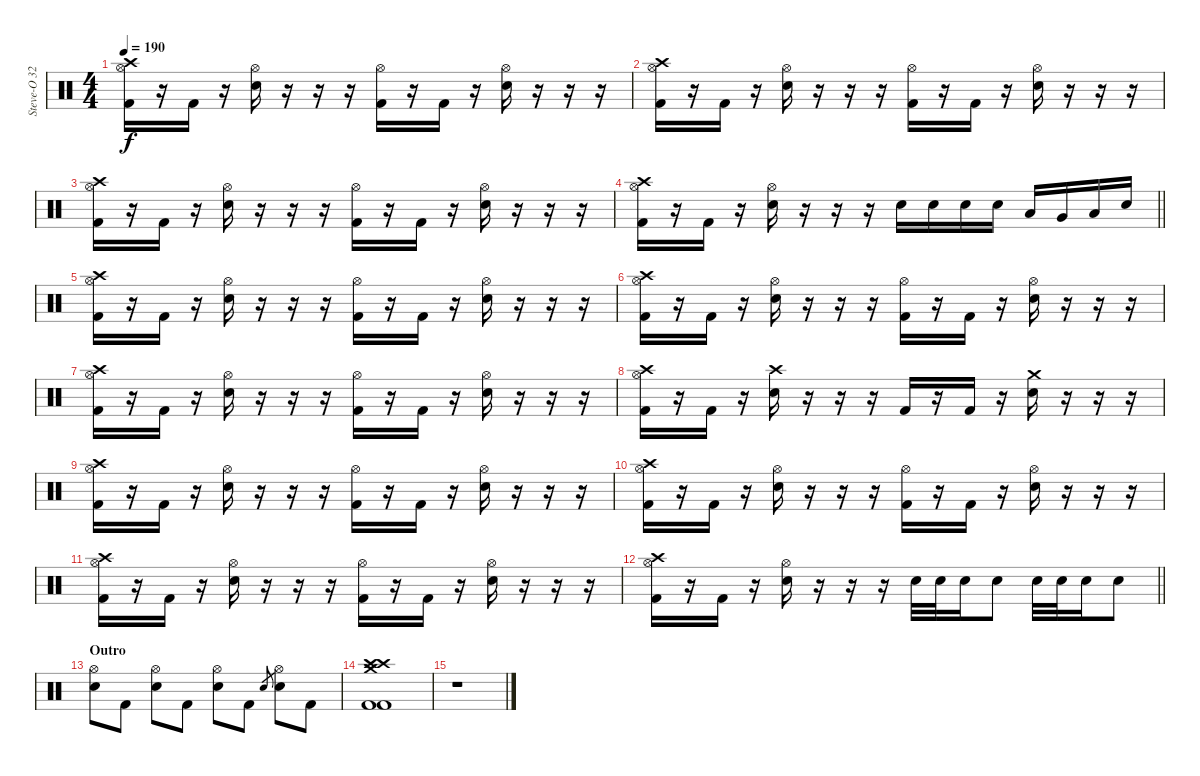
\track ("Steve-O 32 ( Drums )" "Steve-O 32") {instrument percussion}
\staff {score}
\articulation defaults
\ts (4 4)
\tempo 190
\clef neutral
\ks c
("Hi-Hat (open)" "Crash high (hit)" "Kick (hit) 2").16{dy f} r.16 "Kick (hit) 2".16 r.16 ("Hi-Hat (open)" "Snare (hit) 2").16 r.16 r.16 r.16 ("Hi-Hat (open)" "Kick (hit) 2").16 r.16 "Kick (hit) 2".16 r.16 ("Hi-Hat (open)" "Snare (hit) 2").16 r.16 r.16 r.16 |
("Hi-Hat (open)" "Crash high (hit)" "Kick (hit) 2").16 r.16 "Kick (hit) 2".16 r.16 ("Hi-Hat (open)" "Snare (hit) 2").16 r.16 r.16 r.16 ("Hi-Hat (open)" "Kick (hit) 2").16 r.16 "Kick (hit) 2".16 r.16 ("Hi-Hat (open)" "Snare (hit) 2").16 r.16 r.16 r.16 |
("Hi-Hat (open)" "Crash high (hit)" "Kick (hit) 2").16 r.16 "Kick (hit) 2".16 r.16 ("Hi-Hat (open)" "Snare (hit) 2").16 r.16 r.16 r.16 ("Hi-Hat (open)" "Kick (hit) 2").16 r.16 "Kick (hit) 2".16 r.16 ("Hi-Hat (open)" "Snare (hit) 2").16 r.16 r.16 r.16 |
\barLineRight lightlight
("Hi-Hat (open)" "Crash high (hit)" "Kick (hit) 2").16 r.16 "Kick (hit) 2".16 r.16 ("Hi-Hat (open)" "Snare (hit) 2").16 r.16 r.16 r.16 "Snare (hit) 2".16 "Snare (hit) 2".16 "Snare (hit) 2".16 "Snare (hit) 2".16 "Low Tom (hit)".16 "Very Low Tom (hit)".16 "Low Floor Tom (hit)".16 "Snare (hit) 2".16 |
("Hi-Hat (open)" "Crash high (hit)" "Kick (hit) 2").16 r.16 "Kick (hit) 2".16 r.16 ("Hi-Hat (open)" "Snare (hit) 2").16 r.16 r.16 r.16 ("Hi-Hat (open)" "Kick (hit) 2").16 r.16 "Kick (hit) 2".16 r.16 ("Hi-Hat (open)" "Snare (hit) 2").16 r.16 r.16 r.16 |
("Hi-Hat (open)" "Crash high (hit)" "Kick (hit) 2").16 r.16 "Kick (hit) 2".16 r.16 ("Hi-Hat (open)" "Snare (hit) 2").16 r.16 r.16 r.16 ("Hi-Hat (open)" "Kick (hit) 2").16 r.16 "Kick (hit) 2".16 r.16 ("Hi-Hat (open)" "Snare (hit) 2").16 r.16 r.16 r.16 |
("Hi-Hat (open)" "Crash high (hit)" "Kick (hit) 2").16 r.16 "Kick (hit) 2".16 r.16 ("Hi-Hat (open)" "Snare (hit) 2").16 r.16 r.16 r.16 ("Hi-Hat (open)" "Kick (hit) 2").16 r.16 "Kick (hit) 2".16 r.16 ("Hi-Hat (open)" "Snare (hit) 2").16 r.16 r.16 r.16 |
("Hi-Hat (open)" "Crash high (hit)" "Kick (hit) 2").16 r.16 "Kick (hit) 2".16 r.16 ("Crash high (hit)" "Snare (hit) 2").16 r.16 r.16 r.16 "Kick (hit) 2".16 r.16 "Kick (hit) 2".16 r.16 ("Crash medium (hit)" "Snare (hit) 2").16 r.16 r.16 r.16 |
("Hi-Hat (open)" "Crash high (hit)" "Kick (hit) 2").16 r.16 "Kick (hit) 2".16 r.16 ("Hi-Hat (open)" "Snare (hit) 2").16 r.16 r.16 r.16 ("Hi-Hat (open)" "Kick (hit) 2").16 r.16 "Kick (hit) 2".16 r.16 ("Hi-Hat (open)" "Snare (hit) 2").16 r.16 r.16 r.16 |
("Hi-Hat (open)" "Crash high (hit)" "Kick (hit) 2").16 r.16 "Kick (hit) 2".16 r.16 ("Hi-Hat (open)" "Snare (hit) 2").16 r.16 r.16 r.16 ("Hi-Hat (open)" "Kick (hit) 2").16 r.16 "Kick (hit) 2".16 r.16 ("Hi-Hat (open)" "Snare (hit) 2").16 r.16 r.16 r.16 |
("Hi-Hat (open)" "Crash high (hit)" "Kick (hit) 2").16 r.16 "Kick (hit) 2".16 r.16 ("Hi-Hat (open)" "Snare (hit) 2").16 r.16 r.16 r.16 ("Hi-Hat (open)" "Kick (hit) 2").16 r.16 "Kick (hit) 2".16 r.16 ("Hi-Hat (open)" "Snare (hit) 2").16 r.16 r.16 r.16 |
\barLineRight lightlight
("Hi-Hat (open)" "Crash high (hit)" "Kick (hit) 2").16 r.16 "Kick (hit) 2".16 r.16 ("Hi-Hat (open)" "Snare (hit) 2").16 r.16 r.16 r.16 "Snare (hit) 2".32 "Snare (hit) 2".32 "Snare (hit) 2".16 "Snare (hit) 2".8 "Snare (hit) 2".32 "Snare (hit) 2".32 "Snare (hit) 2".16 "Snare (hit) 2".8 |
\section ("" "Outro")
("Snare (hit) 2" "Hi-Hat (open)").8 "Kick (hit) 2".8 ("Snare (hit) 2" "Hi-Hat (open)").8 "Kick (hit) 2".8 ("Snare (hit) 2" "Hi-Hat (open)").8 "Kick (hit) 2".8 "Snare (hit) 2".8{gr} ("Snare (hit) 2" "Hi-Hat (open)").8 "Kick (hit) 2".8 |
("Crash high (hit)" "Kick (hit) 2" "Crash high (hit)" "Crash medium (hit)" "Kick (hit) 2").1 |
r.1
